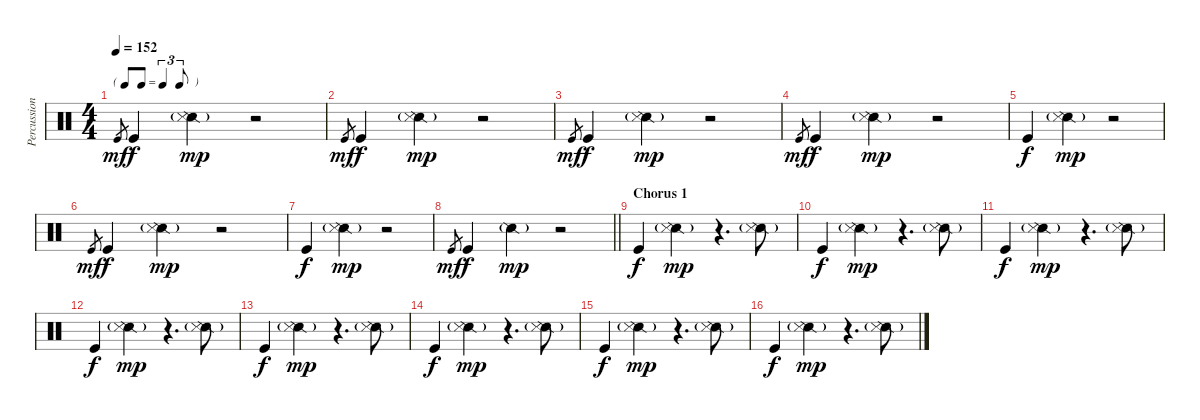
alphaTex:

\track ("Percussion" "Percussion") {instrument percussion}
\staff {score}
\articulation defaults
\ts (4 4)
\tf triplet8th
\tempo 152
\clef neutral
\ks c "Kick (hit)".8{gr dy mf} "Kick (hit)".4{dy f}
("Snare (side stick) 2"{g} "Snare (side stick) 3").4{dy mp} r.2 |
"Kick (hit)".8{gr dy mf} "Kick (hit)".4{dy f} ("Snare (side stick) 2"{g} "Snare (side stick) 3").4{dy mp} r.2 |
"Kick (hit)".8{gr dy mf} "Kick (hit)".4{dy f} ("Snare (side stick) 2"{g} "Snare (side stick) 3").4{dy mp} r.2 |
"Kick (hit)".8{gr dy mf} "Kick (hit)".4{dy f} ("Snare (side stick) 2"{g} "Snare (side stick) 3").4{dy mp} r.2 |
"Kick (hit)".4{dy f} ("Snare (side stick) 2"{g} "Snare (side stick) 3").4{dy mp} r.2 |
"Kick (hit)".8{gr dy mf} "Kick (hit)".4{dy f} ("Snare (side stick) 2"{g} "Snare (side stick) 3").4{dy mp} r.2 |
"Kick (hit)".4{dy f} ("Snare (side stick) 2"{g} "Snare (side stick) 3").4{dy mp} r.2 |
\barLineRight lightlight "Kick (hit)".8{gr dy mf} "Kick (hit)".4{dy f} "Snare (side stick) 2"{g}.4{dy mp}
r.2 |
\section ("" "Chorus 1")
"Kick (hit)".4{dy f} ("Snare (side stick) 2"{g} "Snare (side stick) 3").4{dy mp} r.4{d} ("Snare (side stick) 2"{g} "Snare (side stick) 3").8 |
"Kick (hit)".4{dy f} ("Snare (side stick) 2"{g} "Snare (side stick) 3").4{dy mp} r.4{d} ("Snare (side stick) 2"{g} "Snare (side stick) 3").8 |
"Kick (hit)".4{dy f} ("Snare (side stick) 2"{g} "Snare (side stick) 3").4{dy mp} r.4{d} ("Snare (side stick) 2"{g} "Snare (side stick) 3").8 |
"Kick (hit)".4{dy f} ("Snare (side stick) 2"{g} "Snare (side stick) 3").4{dy mp} r.4{d} ("Snare (side stick) 2"{g} "Snare (side stick) 3").8 |
"Kick (hit)".4{dy f} ("Snare (side stick) 2"{g} "Snare (side stick) 3").4{dy mp} r.4{d} ("Snare (side stick) 2"{g} "Snare (side stick) 3").8 |
"Kick (hit)".4{dy f} ("Snare (side stick) 2"{g} "Snare (side stick) 3").4{dy mp} r.4{d} ("Snare (side stick) 2"{g} "Snare (side stick) 3").8 |
"Kick (hit)".4{dy f} ("Snare (side stick) 2"{g} "Snare (side stick) 3").4{dy mp} r.4{d} ("Snare (side stick) 2"{g} "Snare (side stick) 3").8 |
"Kick (hit)".4{dy f} ("Snare (side stick) 2"{g} "Snare (side stick) 3").4{dy mp} r.4{d} ("Snare (side stick) 2"{g} "Snare (side stick) 3").8
